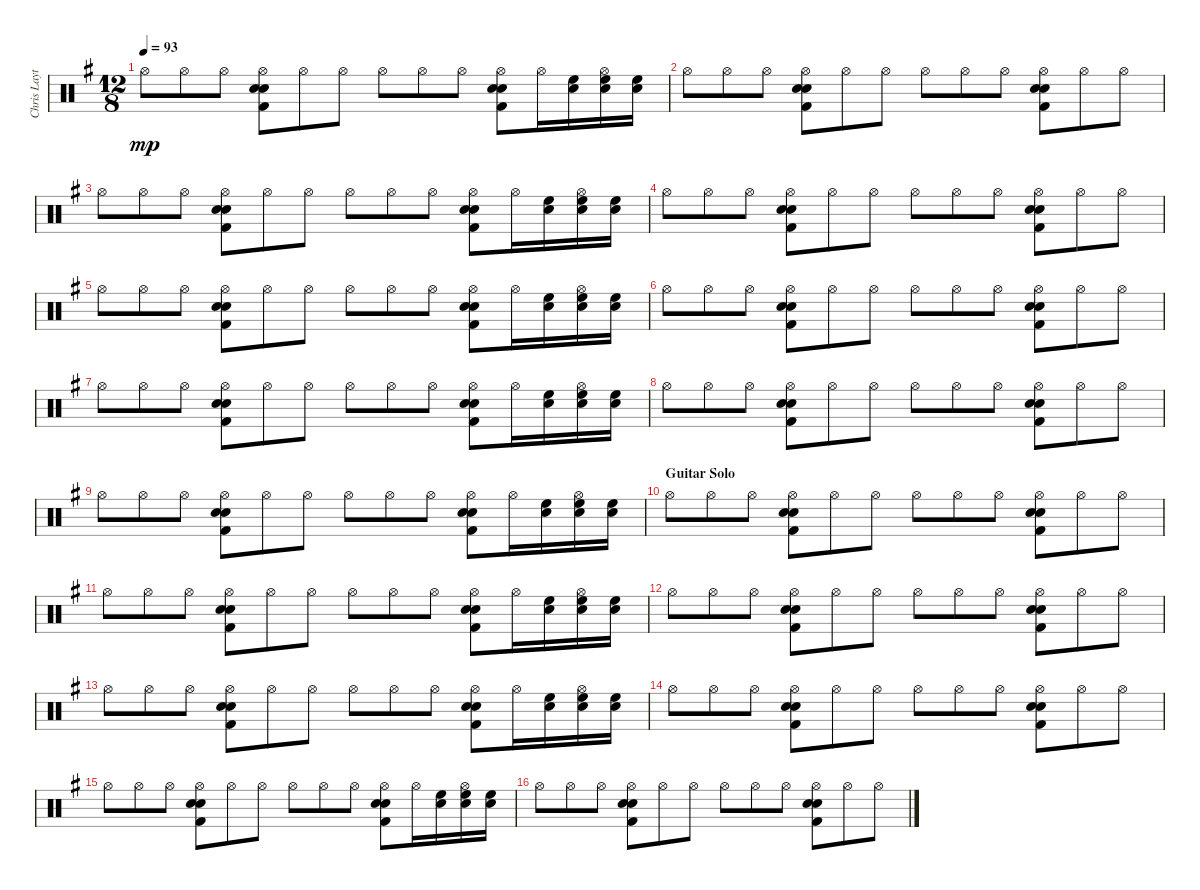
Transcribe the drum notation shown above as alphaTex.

\track ("Chris Layton" "Chris Layt") {instrument percussion}
\staff {score}
\articulation defaults
\ts (12 8)
\tempo 93
\clef neutral
\ks g "Hi-Hat (open)".8{dy mp} "Hi-Hat (open)".8 "Hi-Hat (open)".8
("Electric Snare (hit)" "Electric Snare (hit)" "Kick (hit) 2" "Hi-Hat (open)").8 "Hi-Hat (open)".8 "Hi-Hat (open)".8 "Hi-Hat (open)".8 "Hi-Hat (open)".8 "Hi-Hat (open)".8 ("Kick (hit) 2" "Electric Snare (hit)" "Electric Snare (hit)" "Hi-Hat (open)").8 "Hi-Hat (open)".16 ("Electric Snare (hit)" "High Floor Tom (hit)").16 ("Electric Snare (hit)" "High Floor Tom (hit)" "Hi-Hat (open)").16 ("Electric Snare (hit)" "High Floor Tom (hit)").16 |
"Hi-Hat (open)".8 "Hi-Hat (open)".8 "Hi-Hat (open)".8 ("Electric Snare (hit)" "Electric Snare (hit)" "Kick (hit) 2" "Hi-Hat (open)").8 "Hi-Hat (open)".8 "Hi-Hat (open)".8 "Hi-Hat (open)".8 "Hi-Hat (open)".8 "Hi-Hat (open)".8 ("Kick (hit) 2" "Electric Snare (hit)" "Electric Snare (hit)" "Hi-Hat (open)").8 "Hi-Hat (open)".8 "Hi-Hat (open)".8 |
"Hi-Hat (open)".8 "Hi-Hat (open)".8 "Hi-Hat (open)".8 ("Electric Snare (hit)" "Electric Snare (hit)" "Kick (hit) 2" "Hi-Hat (open)").8 "Hi-Hat (open)".8 "Hi-Hat (open)".8 "Hi-Hat (open)".8 "Hi-Hat (open)".8 "Hi-Hat (open)".8 ("Kick (hit) 2" "Electric Snare (hit)" "Electric Snare (hit)" "Hi-Hat (open)").8 "Hi-Hat (open)".16 ("Electric Snare (hit)" "High Floor Tom (hit)").16 ("Electric Snare (hit)" "High Floor Tom (hit)" "Hi-Hat (open)").16 ("Electric Snare (hit)" "High Floor Tom (hit)").16 |
"Hi-Hat (open)".8 "Hi-Hat (open)".8 "Hi-Hat (open)".8 ("Electric Snare (hit)" "Electric Snare (hit)" "Kick (hit) 2" "Hi-Hat (open)").8 "Hi-Hat (open)".8 "Hi-Hat (open)".8 "Hi-Hat (open)".8 "Hi-Hat (open)".8 "Hi-Hat (open)".8 ("Kick (hit) 2" "Electric Snare (hit)" "Electric Snare (hit)" "Hi-Hat (open)").8 "Hi-Hat (open)".8 "Hi-Hat (open)".8 |
"Hi-Hat (open)".8 "Hi-Hat (open)".8 "Hi-Hat (open)".8 ("Electric Snare (hit)" "Electric Snare (hit)" "Kick (hit) 2" "Hi-Hat (open)").8 "Hi-Hat (open)".8 "Hi-Hat (open)".8 "Hi-Hat (open)".8 "Hi-Hat (open)".8 "Hi-Hat (open)".8 ("Kick (hit) 2" "Electric Snare (hit)" "Electric Snare (hit)" "Hi-Hat (open)").8 "Hi-Hat (open)".16 ("Electric Snare (hit)" "High Floor Tom (hit)").16 ("Electric Snare (hit)" "High Floor Tom (hit)" "Hi-Hat (open)").16 ("Electric Snare (hit)" "High Floor Tom (hit)").16 |
"Hi-Hat (open)".8 "Hi-Hat (open)".8 "Hi-Hat (open)".8 ("Electric Snare (hit)" "Electric Snare (hit)" "Kick (hit) 2" "Hi-Hat (open)").8 "Hi-Hat (open)".8 "Hi-Hat (open)".8 "Hi-Hat (open)".8 "Hi-Hat (open)".8 "Hi-Hat (open)".8 ("Kick (hit) 2" "Electric Snare (hit)" "Electric Snare (hit)" "Hi-Hat (open)").8 "Hi-Hat (open)".8 "Hi-Hat (open)".8 |
"Hi-Hat (open)".8 "Hi-Hat (open)".8 "Hi-Hat (open)".8 ("Electric Snare (hit)" "Electric Snare (hit)" "Kick (hit) 2" "Hi-Hat (open)").8 "Hi-Hat (open)".8 "Hi-Hat (open)".8 "Hi-Hat (open)".8 "Hi-Hat (open)".8 "Hi-Hat (open)".8 ("Kick (hit) 2" "Electric Snare (hit)" "Electric Snare (hit)" "Hi-Hat (open)").8 "Hi-Hat (open)".16 ("Electric Snare (hit)" "High Floor Tom (hit)").16 ("Electric Snare (hit)" "High Floor Tom (hit)" "Hi-Hat (open)").16 ("Electric Snare (hit)" "High Floor Tom (hit)").16 |
"Hi-Hat (open)".8 "Hi-Hat (open)".8 "Hi-Hat (open)".8 ("Electric Snare (hit)" "Electric Snare (hit)" "Kick (hit) 2" "Hi-Hat (open)").8 "Hi-Hat (open)".8 "Hi-Hat (open)".8 "Hi-Hat (open)".8 "Hi-Hat (open)".8 "Hi-Hat (open)".8 ("Kick (hit) 2" "Electric Snare (hit)" "Electric Snare (hit)" "Hi-Hat (open)").8 "Hi-Hat (open)".8 "Hi-Hat (open)".8 |
"Hi-Hat (open)".8 "Hi-Hat (open)".8 "Hi-Hat (open)".8 ("Electric Snare (hit)" "Electric Snare (hit)" "Kick (hit) 2" "Hi-Hat (open)").8 "Hi-Hat (open)".8 "Hi-Hat (open)".8 "Hi-Hat (open)".8 "Hi-Hat (open)".8 "Hi-Hat (open)".8 ("Kick (hit) 2" "Electric Snare (hit)" "Electric Snare (hit)" "Hi-Hat (open)").8 "Hi-Hat (open)".16 ("Electric Snare (hit)" "High Floor Tom (hit)").16 ("Electric Snare (hit)" "High Floor Tom (hit)" "Hi-Hat (open)").16 ("Electric Snare (hit)" "High Floor Tom (hit)").16 |
\section ("" "Guitar Solo")
"Hi-Hat (open)".8 "Hi-Hat (open)".8 "Hi-Hat (open)".8 ("Electric Snare (hit)" "Electric Snare (hit)" "Kick (hit) 2" "Hi-Hat (open)").8 "Hi-Hat (open)".8 "Hi-Hat (open)".8 "Hi-Hat (open)".8 "Hi-Hat (open)".8 "Hi-Hat (open)".8 ("Kick (hit) 2" "Electric Snare (hit)" "Electric Snare (hit)" "Hi-Hat (open)").8 "Hi-Hat (open)".8 "Hi-Hat (open)".8 |
"Hi-Hat (open)".8 "Hi-Hat (open)".8 "Hi-Hat (open)".8 ("Electric Snare (hit)" "Electric Snare (hit)" "Kick (hit) 2" "Hi-Hat (open)").8 "Hi-Hat (open)".8 "Hi-Hat (open)".8 "Hi-Hat (open)".8 "Hi-Hat (open)".8 "Hi-Hat (open)".8 ("Kick (hit) 2" "Electric Snare (hit)" "Electric Snare (hit)" "Hi-Hat (open)").8 "Hi-Hat (open)".16 ("Electric Snare (hit)" "High Floor Tom (hit)").16 ("Electric Snare (hit)" "High Floor Tom (hit)" "Hi-Hat (open)").16 ("Electric Snare (hit)" "High Floor Tom (hit)").16 |
"Hi-Hat (open)".8 "Hi-Hat (open)".8 "Hi-Hat (open)".8 ("Electric Snare (hit)" "Electric Snare (hit)" "Kick (hit) 2" "Hi-Hat (open)").8 "Hi-Hat (open)".8 "Hi-Hat (open)".8 "Hi-Hat (open)".8 "Hi-Hat (open)".8 "Hi-Hat (open)".8 ("Kick (hit) 2" "Electric Snare (hit)" "Electric Snare (hit)" "Hi-Hat (open)").8 "Hi-Hat (open)".8 "Hi-Hat (open)".8 |
"Hi-Hat (open)".8 "Hi-Hat (open)".8 "Hi-Hat (open)".8 ("Electric Snare (hit)" "Electric Snare (hit)" "Kick (hit) 2" "Hi-Hat (open)").8 "Hi-Hat (open)".8 "Hi-Hat (open)".8 "Hi-Hat (open)".8 "Hi-Hat (open)".8 "Hi-Hat (open)".8 ("Kick (hit) 2" "Electric Snare (hit)" "Electric Snare (hit)" "Hi-Hat (open)").8 "Hi-Hat (open)".16 ("Electric Snare (hit)" "High Floor Tom (hit)").16 ("Electric Snare (hit)" "High Floor Tom (hit)" "Hi-Hat (open)").16 ("Electric Snare (hit)" "High Floor Tom (hit)").16 |
"Hi-Hat (open)".8 "Hi-Hat (open)".8 "Hi-Hat (open)".8 ("Electric Snare (hit)" "Electric Snare (hit)" "Kick (hit) 2" "Hi-Hat (open)").8 "Hi-Hat (open)".8 "Hi-Hat (open)".8 "Hi-Hat (open)".8 "Hi-Hat (open)".8 "Hi-Hat (open)".8 ("Kick (hit) 2" "Electric Snare (hit)" "Electric Snare (hit)" "Hi-Hat (open)").8 "Hi-Hat (open)".8 "Hi-Hat (open)".8 |
"Hi-Hat (open)".8 "Hi-Hat (open)".8 "Hi-Hat (open)".8 ("Electric Snare (hit)" "Electric Snare (hit)" "Kick (hit) 2" "Hi-Hat (open)").8 "Hi-Hat (open)".8 "Hi-Hat (open)".8 "Hi-Hat (open)".8 "Hi-Hat (open)".8 "Hi-Hat (open)".8 ("Kick (hit) 2" "Electric Snare (hit)" "Electric Snare (hit)" "Hi-Hat (open)").8 "Hi-Hat (open)".16 ("Electric Snare (hit)" "High Floor Tom (hit)").16 ("Electric Snare (hit)" "High Floor Tom (hit)" "Hi-Hat (open)").16 ("Electric Snare (hit)" "High Floor Tom (hit)").16 |
"Hi-Hat (open)".8 "Hi-Hat (open)".8 "Hi-Hat (open)".8 ("Electric Snare (hit)" "Electric Snare (hit)" "Kick (hit) 2" "Hi-Hat (open)").8 "Hi-Hat (open)".8 "Hi-Hat (open)".8 "Hi-Hat (open)".8 "Hi-Hat (open)".8 "Hi-Hat (open)".8 ("Kick (hit) 2" "Electric Snare (hit)" "Electric Snare (hit)" "Hi-Hat (open)").8 "Hi-Hat (open)".8 "Hi-Hat (open)".8
